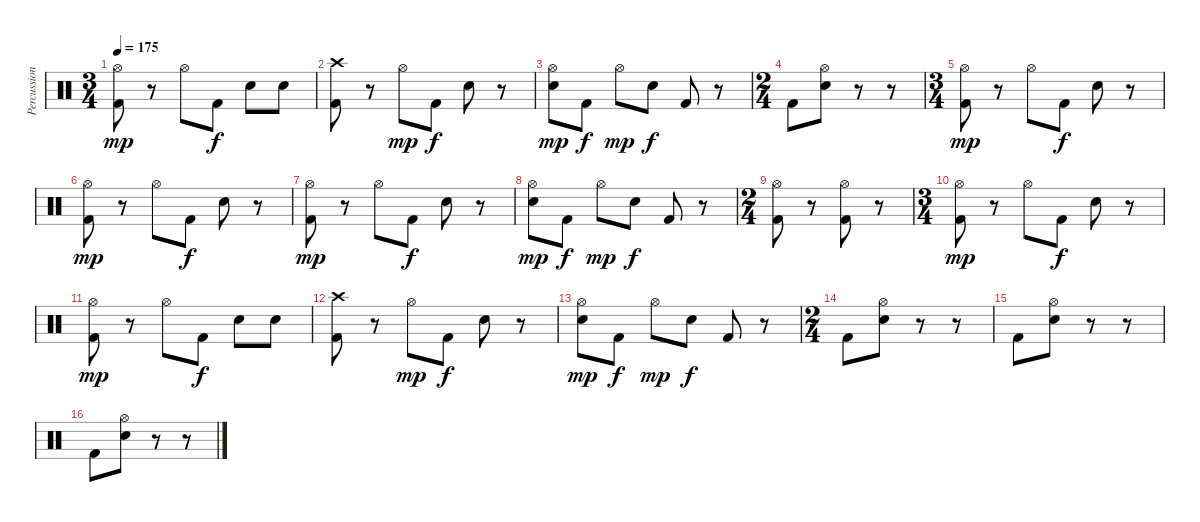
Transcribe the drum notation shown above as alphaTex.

\track ("Percussion" "Percussion") {instrument percussion}
\staff {score}
\articulation defaults
\ts (3 4)
\tempo 175
\clef neutral
\ks c
("Hi-Hat (open)" "Kick (hit) 2").8{dy mp} r.8 "Hi-Hat (open)".8 "Kick (hit) 2".8{dy f} "Snare (hit) 2".8 "Snare (hit) 2".8 |
("Crash high (hit)" "Kick (hit) 2").8 r.8 "Hi-Hat (open)".8{dy mp} "Kick (hit) 2".8{dy f} "Snare (hit) 2".8 r.8 |
("Hi-Hat (open)" "Snare (hit) 2").8{dy mp} "Kick (hit) 2".8{dy f} "Hi-Hat (open)".8{dy mp} "Snare (hit) 2".8{dy f} "Kick (hit) 2".8 r.8 |
\ts (2 4)
"Kick (hit) 2".8 ("Hi-Hat (open)" "Snare (hit) 2").8 r.8 r.8 |
\ts (3 4)
("Hi-Hat (open)" "Kick (hit) 2").8{dy mp} r.8 "Hi-Hat (open)".8 "Kick (hit) 2".8{dy f} "Snare (hit) 2".8 r.8 |
("Hi-Hat (open)" "Kick (hit) 2").8{dy mp} r.8 "Hi-Hat (open)".8 "Kick (hit) 2".8{dy f} "Snare (hit) 2".8 r.8 |
("Hi-Hat (open)" "Kick (hit) 2").8{dy mp} r.8 "Hi-Hat (open)".8 "Kick (hit) 2".8{dy f} "Snare (hit) 2".8 r.8 |
("Hi-Hat (open)" "Snare (hit) 2").8{dy mp} "Kick (hit) 2".8{dy f} "Hi-Hat (open)".8{dy mp} "Snare (hit) 2".8{dy f} "Kick (hit) 2".8 r.8 |
\ts (2 4)
("Hi-Hat (open)" "Kick (hit) 2").8 r.8 ("Hi-Hat (open)" "Kick (hit) 2").8 r.8 |
\ts (3 4)
("Hi-Hat (open)" "Kick (hit) 2").8{dy mp} r.8 "Hi-Hat (open)".8 "Kick (hit) 2".8{dy f} "Snare (hit) 2".8 r.8 |
("Hi-Hat (open)" "Kick (hit) 2").8{dy mp} r.8 "Hi-Hat (open)".8 "Kick (hit) 2".8{dy f} "Snare (hit) 2".8 "Snare (hit) 2".8 |
("Crash high (hit)" "Kick (hit) 2").8 r.8 "Hi-Hat (open)".8{dy mp} "Kick (hit) 2".8{dy f} "Snare (hit) 2".8 r.8 |
("Hi-Hat (open)" "Snare (hit) 2").8{dy mp} "Kick (hit) 2".8{dy f} "Hi-Hat (open)".8{dy mp} "Snare (hit) 2".8{dy f} "Kick (hit) 2".8 r.8 |
\ts (2 4)
"Kick (hit) 2".8 ("Hi-Hat (open)" "Snare (hit) 2").8 r.8 r.8 |
"Kick (hit) 2".8 ("Hi-Hat (open)" "Snare (hit) 2").8 r.8 r.8 |
"Kick (hit) 2".8 ("Hi-Hat (open)" "Snare (hit) 2").8 r.8 r.8
